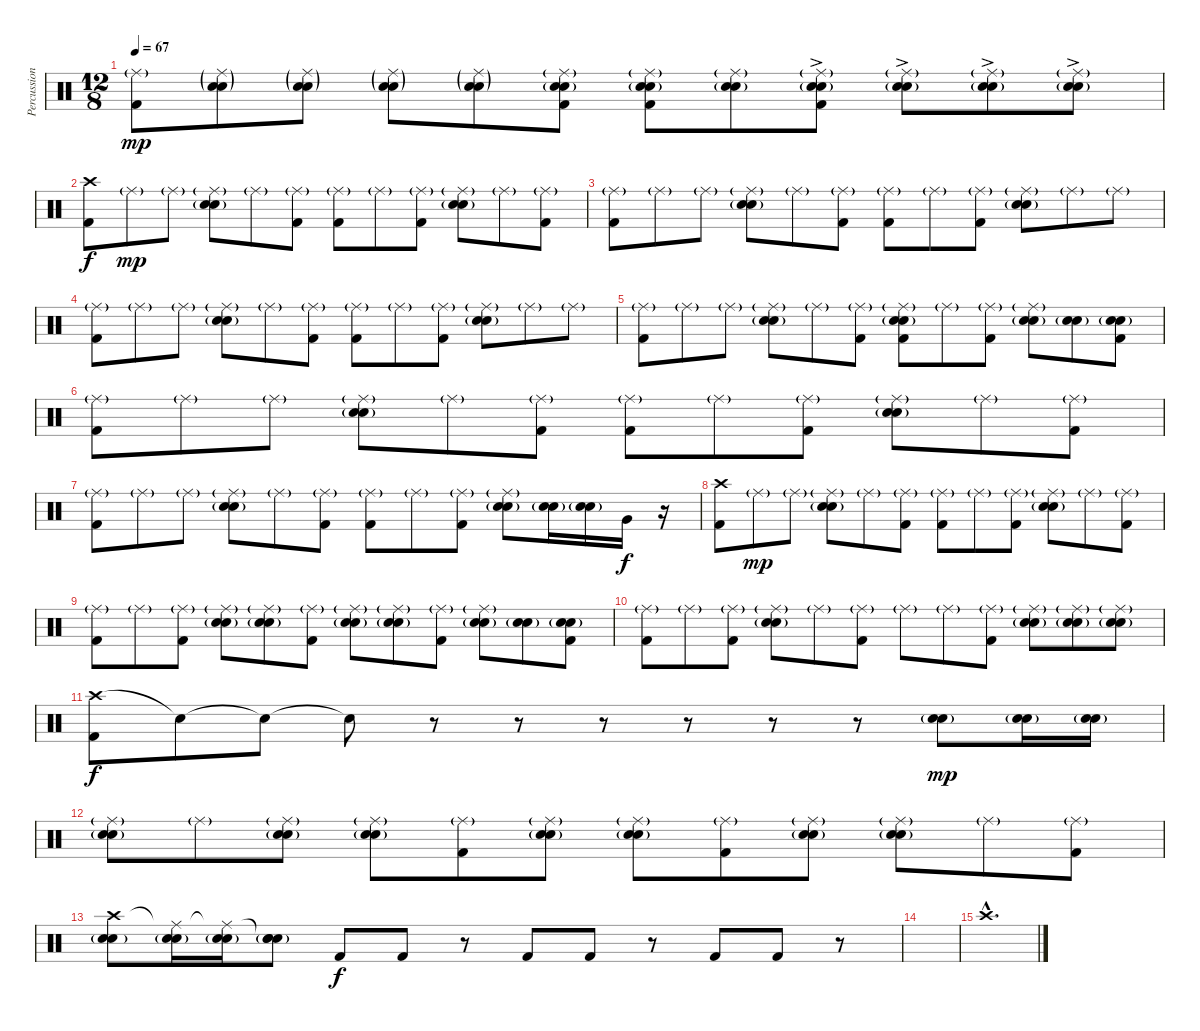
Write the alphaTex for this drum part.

\track ("Percussion" "Percussion") {instrument percussion}
\staff {score}
\articulation defaults
\ts (12 8)
\tempo 67
\clef neutral
\ks c
("Ride (middle)"{g} "Kick (hit) 2").8{dy mp} ("Ride (middle)"{g} "Electric Snare (hit)"{g} "Snare (hit) 2"{g}).8 ("Ride (middle)"{g} "Electric Snare (hit)"{g} "Snare (hit) 2"{g}).8 ("Ride (middle)"{g} "Electric Snare (hit)"{g} "Snare (hit) 2"{g}).8 ("Ride (middle)"{g} "Electric Snare (hit)"{g} "Snare (hit) 2"{g}).8 ("Ride (middle)"{g} "Electric Snare (hit)" "Snare (hit) 2"{g} "Kick (hit) 2").8 ("Ride (middle)"{g} "Electric Snare (hit)" "Snare (hit) 2"{g} "Kick (hit) 2").8 ("Ride (middle)"{g} "Electric Snare (hit)" "Snare (hit) 2"{g}).8 ("Ride (middle)"{g} "Electric Snare (hit)"{ac} "Snare (hit) 2"{g} "Kick (hit) 2").8 ("Ride (middle)"{g} "Electric Snare (hit)"{ac} "Snare (hit) 2"{g}).8 ("Ride (middle)"{g} "Electric Snare (hit)"{ac} "Snare (hit) 2"{g}).8 ("Ride (middle)"{g} "Electric Snare (hit)"{ac} "Snare (hit) 2"{g}).8 |
("Crash high (hit)" "Kick (hit) 2").8{dy f} "Ride (middle)"{g}.8{dy mp} "Ride (middle)"{g}.8 ("Ride (middle)"{g} "Electric Snare (hit)" "Snare (hit) 2"{g}).8 "Ride (middle)"{g}.8 ("Ride (middle)"{g} "Kick (hit) 2").8 ("Ride (middle)"{g} "Kick (hit) 2").8 "Ride (middle)"{g}.8 ("Ride (middle)"{g} "Kick (hit) 2").8 ("Ride (middle)"{g} "Electric Snare (hit)" "Snare (hit) 2"{g}).8 "Ride (middle)"{g}.8 ("Ride (middle)"{g} "Kick (hit) 2").8 |
("Ride (middle)"{g} "Kick (hit) 2").8 "Ride (middle)"{g}.8 "Ride (middle)"{g}.8 ("Ride (middle)"{g} "Electric Snare (hit)" "Snare (hit) 2"{g}).8 "Ride (middle)"{g}.8 ("Ride (middle)"{g} "Kick (hit) 2").8 ("Ride (middle)"{g} "Kick (hit) 2").8 "Ride (middle)"{g}.8 ("Ride (middle)"{g} "Kick (hit) 2").8 ("Ride (middle)"{g} "Electric Snare (hit)" "Snare (hit) 2"{g}).8 "Ride (middle)"{g}.8 "Ride (middle)"{g}.8 |
("Ride (middle)"{g} "Kick (hit) 2").8 "Ride (middle)"{g}.8 "Ride (middle)"{g}.8 ("Ride (middle)"{g} "Electric Snare (hit)" "Snare (hit) 2"{g}).8 "Ride (middle)"{g}.8 ("Ride (middle)"{g} "Kick (hit) 2").8 ("Ride (middle)"{g} "Kick (hit) 2").8 "Ride (middle)"{g}.8 ("Ride (middle)"{g} "Kick (hit) 2").8 ("Ride (middle)"{g} "Electric Snare (hit)" "Snare (hit) 2"{g}).8 "Ride (middle)"{g}.8 "Ride (middle)"{g}.8 |
("Ride (middle)"{g} "Kick (hit) 2").8 "Ride (middle)"{g}.8 "Ride (middle)"{g}.8 ("Ride (middle)"{g} "Electric Snare (hit)" "Snare (hit) 2"{g}).8 "Ride (middle)"{g}.8 ("Ride (middle)"{g} "Kick (hit) 2").8 ("Ride (middle)"{g} "Electric Snare (hit)" "Snare (hit) 2"{g} "Kick (hit) 2").8 "Ride (middle)"{g}.8 ("Ride (middle)"{g} "Kick (hit) 2").8 ("Ride (middle)"{g} "Electric Snare (hit)" "Snare (hit) 2"{g}).8 ("Electric Snare (hit)" "Snare (hit) 2"{g}).8 ("Electric Snare (hit)" "Snare (hit) 2"{g} "Kick (hit) 2").8 |
("Ride (middle)"{g} "Kick (hit) 2").8 "Ride (middle)"{g}.8 "Ride (middle)"{g}.8 ("Ride (middle)"{g} "Electric Snare (hit)" "Snare (hit) 2"{g}).8 "Ride (middle)"{g}.8 ("Ride (middle)"{g} "Kick (hit) 2").8 ("Ride (middle)"{g} "Kick (hit) 2").8 "Ride (middle)"{g}.8 ("Ride (middle)"{g} "Kick (hit) 2").8 ("Ride (middle)"{g} "Electric Snare (hit)" "Snare (hit) 2"{g}).8 "Ride (middle)"{g}.8 ("Ride (middle)"{g} "Kick (hit) 2").8 |
("Ride (middle)"{g} "Kick (hit) 2").8 "Ride (middle)"{g}.8 "Ride (middle)"{g}.8 ("Ride (middle)"{g} "Electric Snare (hit)" "Snare (hit) 2"{g}).8 "Ride (middle)"{g}.8 ("Ride (middle)"{g} "Kick (hit) 2").8 ("Ride (middle)"{g} "Kick (hit) 2").8 "Ride (middle)"{g}.8 ("Ride (middle)"{g} "Kick (hit) 2").8 ("Ride (middle)"{g} "Electric Snare (hit)" "Snare (hit) 2"{g}).8 ("Electric Snare (hit)" "Snare (hit) 2"{g}).16 ("Electric Snare (hit)"{g} "Snare (hit) 2"{g}).16 "Very Low Tom (hit)".16{dy f} r.16 |
("Crash high (hit)" "Kick (hit) 2").8 "Ride (middle)"{g}.8{dy mp} "Ride (middle)"{g}.8 ("Ride (middle)"{g} "Electric Snare (hit)" "Snare (hit) 2"{g}).8 "Ride (middle)"{g}.8 ("Ride (middle)"{g} "Kick (hit) 2").8 ("Ride (middle)"{g} "Kick (hit) 2").8 "Ride (middle)"{g}.8 ("Ride (middle)"{g} "Kick (hit) 2").8 ("Ride (middle)"{g} "Electric Snare (hit)" "Snare (hit) 2"{g}).8 "Ride (middle)"{g}.8 ("Ride (middle)"{g} "Kick (hit) 2").8 |
("Ride (middle)"{g} "Kick (hit) 2").8 "Ride (middle)"{g}.8 ("Ride (middle)"{g} "Kick (hit) 2").8 ("Ride (middle)"{g} "Electric Snare (hit)" "Snare (hit) 2"{g}).8 ("Ride (middle)"{g} "Electric Snare (hit)" "Snare (hit) 2"{g}).8 ("Ride (middle)"{g} "Kick (hit) 2").8 ("Ride (middle)"{g} "Electric Snare (hit)" "Snare (hit) 2"{g}).8 ("Ride (middle)"{g} "Electric Snare (hit)" "Snare (hit) 2"{g}).8 ("Ride (middle)"{g} "Kick (hit) 2").8 ("Ride (middle)"{g} "Electric Snare (hit)" "Snare (hit) 2"{g}).8 ("Electric Snare (hit)"{g} "Snare (hit) 2"{g}).8 ("Electric Snare (hit)" "Snare (hit) 2"{g} "Kick (hit) 2").8 |
("Ride (middle)"{g} "Kick (hit) 2").8 "Ride (middle)"{g}.8 ("Ride (middle)"{g} "Kick (hit) 2").8 ("Ride (middle)"{g} "Electric Snare (hit)" "Snare (hit) 2"{g}).8 "Ride (middle)"{g}.8 ("Ride (middle)"{g} "Kick (hit) 2").8 "Ride (middle)"{g}.8 "Ride (middle)"{g}.8 ("Ride (middle)"{g} "Kick (hit) 2").8 ("Ride (middle)"{g} "Electric Snare (hit)" "Snare (hit) 2"{g}).8 ("Ride (middle)"{g} "Electric Snare (hit)" "Snare (hit) 2"{g}).8 ("Ride (middle)"{g} "Electric Snare (hit)" "Snare (hit) 2"{g}).8 |
("Crash high (hit)" "Kick (hit) 2").8{dy f} "Snare (hit)"{t}.8 "Snare (hit)"{t}.8 "Snare (hit)"{t}.8 r.8 r.8 r.8 r.8 r.8 r.8 ("Electric Snare (hit)" "Snare (hit) 2"{g}).8{dy mp} ("Electric Snare (hit)"{g} "Snare (hit) 2"{g}).16 ("Electric Snare (hit)" "Snare (hit) 2"{g}).16 |
("Ride (middle)"{g} "Electric Snare (hit)" "Snare (hit) 2"{g}).8 "Ride (middle)"{g}.8 ("Ride (middle)"{g} "Electric Snare (hit)" "Snare (hit) 2"{g}).8 ("Ride (middle)"{g} "Electric Snare (hit)" "Snare (hit) 2"{g}).8 ("Ride (middle)"{g} "Kick (hit) 2").8 ("Ride (middle)"{g} "Electric Snare (hit)" "Snare (hit) 2"{g}).8 ("Ride (middle)"{g} "Electric Snare (hit)" "Snare (hit) 2"{g}).8 ("Ride (middle)"{g} "Kick (hit) 2").8 ("Ride (middle)"{g} "Electric Snare (hit)" "Snare (hit) 2"{g}).8 ("Ride (middle)"{g} "Electric Snare (hit)" "Snare (hit) 2"{g}).8 "Ride (middle)"{g}.8 ("Ride (middle)"{g} "Kick (hit) 2").8 |
("Crash high (hit)" "Electric Snare (hit)" "Snare (hit) 2"{g}).8 ("Ride (middle)"{t} "Electric Snare (hit)" "Snare (hit) 2"{g}).16 ("Ride (middle)"{t} "Electric Snare (hit)"{g} "Snare (hit) 2"{g}).16 ("Snare (hit)"{t} "Electric Snare (hit)" "Snare (hit) 2"{g}).8 "Kick (hit) 2".8{dy f} "Kick (hit) 2".8 r.8 "Kick (hit) 2".8 "Kick (hit) 2".8 r.8 "Kick (hit) 2".8 "Kick (hit) 2".8 r.8 |
|
"Crash high (hit)"{hac}.1{d}
